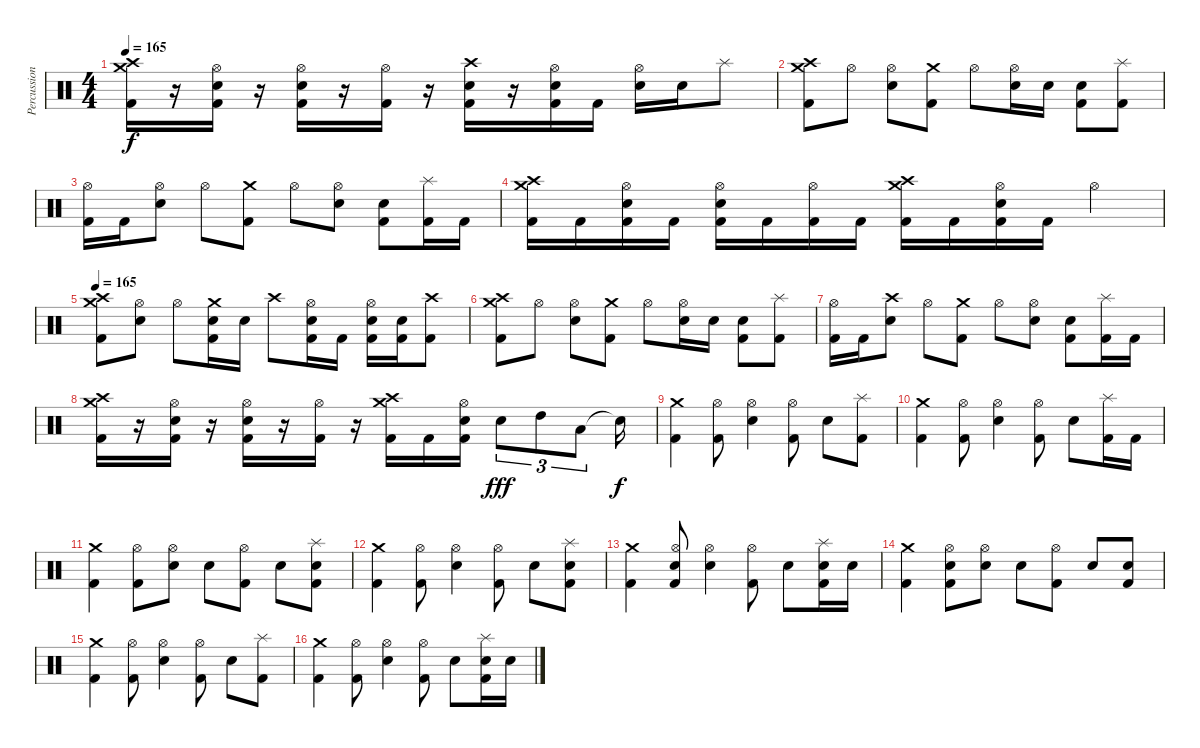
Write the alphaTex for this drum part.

\track ("Percussion" "Percussion") {instrument percussion}
\staff {score}
\articulation defaults
\ts (4 4)
\tempo 165
\clef neutral
\ks c
("Crash medium (hit)" "Crash high (hit)" "Kick (hit) 2").16{dy f} r.16 ("Hi-Hat (open)" "Electric Snare (hit)" "Kick (hit) 2").16 r.16 ("Hi-Hat (open)" "Electric Snare (hit)" "Kick (hit) 2").16 r.16 ("Hi-Hat (open)" "Kick (hit) 2").16 r.16 ("Crash high (hit)" "Electric Snare (hit)" "Kick (hit) 2").16 r.16 ("Hi-Hat (open)" "Electric Snare (hit)" "Kick (hit) 2").16 "Kick (hit) 2".16 ("Hi-Hat (open)" "Electric Snare (hit)").16 "Electric Snare (hit)".16 "Splash (hit)".8 |
("Crash medium (hit)" "Crash high (hit)" "Kick (hit) 2").8 "Hi-Hat (open)".8 ("Hi-Hat (open)" "Electric Snare (hit)").8 ("Crash medium (hit)" "Kick (hit) 2").8 "Hi-Hat (open)".8 ("Hi-Hat (open)" "Electric Snare (hit)").16 "Electric Snare (hit)".16 ("Electric Snare (hit)" "Kick (hit) 2").8 ("Splash (hit)" "Kick (hit) 2").8 |
("Hi-Hat (open)" "Kick (hit) 2").16 "Kick (hit) 2".16 ("Hi-Hat (open)" "Electric Snare (hit)").8 "Hi-Hat (open)".8 ("Crash medium (hit)" "Kick (hit) 2").8 "Hi-Hat (open)".8 ("Hi-Hat (open)" "Electric Snare (hit)").8 ("Electric Snare (hit)" "Kick (hit) 2").8 ("Splash (hit)" "Kick (hit) 2").16 "Kick (hit) 2".16 |
("Crash medium (hit)" "Crash high (hit)" "Kick (hit) 2").16 "Kick (hit) 2".16 ("Hi-Hat (open)" "Electric Snare (hit)" "Kick (hit) 2").16 "Kick (hit) 2".16 ("Hi-Hat (open)" "Electric Snare (hit)" "Kick (hit) 2").16 "Kick (hit) 2".16 ("Hi-Hat (open)" "Kick (hit) 2").16 "Kick (hit) 2".16 ("Crash medium (hit)" "Crash high (hit)" "Kick (hit) 2").16 "Kick (hit) 2".16 ("Hi-Hat (open)" "Electric Snare (hit)" "Kick (hit) 2").16 "Kick (hit) 2".16 "Hi-Hat (open)".4 |
\tempo 165
("Crash medium (hit)" "Crash high (hit)" "Kick (hit) 2").8 ("Hi-Hat (open)" "Electric Snare (hit)").8 "Hi-Hat (open)".8 ("Crash medium (hit)" "Electric Snare (hit)" "Kick (hit) 2").16 "Electric Snare (hit)".16 "Crash high (hit)".8 ("Hi-Hat (open)" "Electric Snare (hit)" "Kick (hit) 2").16 "Kick (hit) 2".16 ("Hi-Hat (open)" "Electric Snare (hit)" "Kick (hit) 2").16 ("Electric Snare (hit)" "Kick (hit) 2").16 ("Crash high (hit)" "Kick (hit) 2").8 |
("Crash medium (hit)" "Crash high (hit)" "Kick (hit) 2").8 "Hi-Hat (open)".8 ("Hi-Hat (open)" "Electric Snare (hit)").8 ("Crash medium (hit)" "Kick (hit) 2").8 "Hi-Hat (open)".8 ("Hi-Hat (open)" "Electric Snare (hit)").16 "Electric Snare (hit)".16 ("Electric Snare (hit)" "Kick (hit) 2").8 ("Splash (hit)" "Kick (hit) 2").8 |
("Hi-Hat (open)" "Kick (hit) 2").16 "Kick (hit) 2".16 ("Crash high (hit)" "Electric Snare (hit)").8 "Hi-Hat (open)".8 ("Crash medium (hit)" "Kick (hit) 2").8 "Hi-Hat (open)".8 ("Hi-Hat (open)" "Electric Snare (hit)").8 ("Electric Snare (hit)" "Kick (hit) 2").8 ("Splash (hit)" "Kick (hit) 2").16 "Kick (hit) 2".16 |
("Crash medium (hit)" "Crash high (hit)" "Kick (hit) 2").16 r.16 ("Hi-Hat (open)" "Electric Snare (hit)" "Kick (hit) 2").16 r.16 ("Hi-Hat (open)" "Electric Snare (hit)" "Kick (hit) 2").16 r.16 ("Hi-Hat (open)" "Kick (hit) 2").16 r.16 ("Crash medium (hit)" "Crash high (hit)" "Kick (hit) 2").16 "Kick (hit) 2".16 ("Hi-Hat (open)" "Electric Snare (hit)" "Kick (hit) 2").16 "Electric Snare (hit)".8{tu (3 2) dy fff} "High Tom (hit)".8{tu (3 2)} "Low Tom (hit)".8{tu (3 2)} "Snare (hit)"{t}.16{dy f} |
("Crash medium (hit)" "Kick (hit) 2").4 ("Hi-Hat (open)" "Kick (hit) 2").8 ("Hi-Hat (open)" "Electric Snare (hit)").4 ("Hi-Hat (open)" "Kick (hit) 2").8 "Electric Snare (hit)".8 ("Splash (hit)" "Kick (hit) 2").8 |
("Crash medium (hit)" "Kick (hit) 2").4 ("Hi-Hat (open)" "Kick (hit) 2").8 ("Hi-Hat (open)" "Electric Snare (hit)").4 ("Hi-Hat (open)" "Kick (hit) 2").8 "Electric Snare (hit)".8 ("Splash (hit)" "Kick (hit) 2").16 "Kick (hit) 2".16 |
("Crash medium (hit)" "Kick (hit) 2").4 ("Hi-Hat (open)" "Kick (hit) 2").8 ("Hi-Hat (open)" "Electric Snare (hit)").8 "Electric Snare (hit)".8 ("Hi-Hat (open)" "Kick (hit) 2").8 "Electric Snare (hit)".8 ("Splash (hit)" "Electric Snare (hit)" "Kick (hit) 2").8 |
("Crash medium (hit)" "Kick (hit) 2").4 ("Hi-Hat (open)" "Kick (hit) 2").8 ("Hi-Hat (open)" "Electric Snare (hit)").4 ("Hi-Hat (open)" "Kick (hit) 2").8 "Electric Snare (hit)".8 ("Splash (hit)" "Electric Snare (hit)" "Kick (hit) 2").8 |
("Crash medium (hit)" "Kick (hit) 2").4 ("Hi-Hat (open)" "Electric Snare (hit)" "Kick (hit) 2").8 ("Hi-Hat (open)" "Electric Snare (hit)").4 ("Hi-Hat (open)" "Kick (hit) 2").8 "Electric Snare (hit)".8 ("Splash (hit)" "Electric Snare (hit)" "Kick (hit) 2").16 "Electric Snare (hit)".16 |
("Crash medium (hit)" "Kick (hit) 2").4 ("Hi-Hat (open)" "Electric Snare (hit)" "Kick (hit) 2").8 ("Hi-Hat (open)" "Electric Snare (hit)").8 "Electric Snare (hit)".8 ("Hi-Hat (open)" "Kick (hit) 2").8 "Electric Snare (hit)".8 ("Electric Snare (hit)" "Kick (hit) 2").8 |
("Crash medium (hit)" "Kick (hit) 2").4 ("Hi-Hat (open)" "Kick (hit) 2").8 ("Hi-Hat (open)" "Electric Snare (hit)").4 ("Hi-Hat (open)" "Kick (hit) 2").8 "Electric Snare (hit)".8 ("Splash (hit)" "Kick (hit) 2").8 |
("Crash medium (hit)" "Kick (hit) 2").4 ("Hi-Hat (open)" "Kick (hit) 2").8 ("Hi-Hat (open)" "Electric Snare (hit)").4 ("Hi-Hat (open)" "Kick (hit) 2").8 "Electric Snare (hit)".8 ("Splash (hit)" "Electric Snare (hit)" "Kick (hit) 2").16 "Electric Snare (hit)".16
